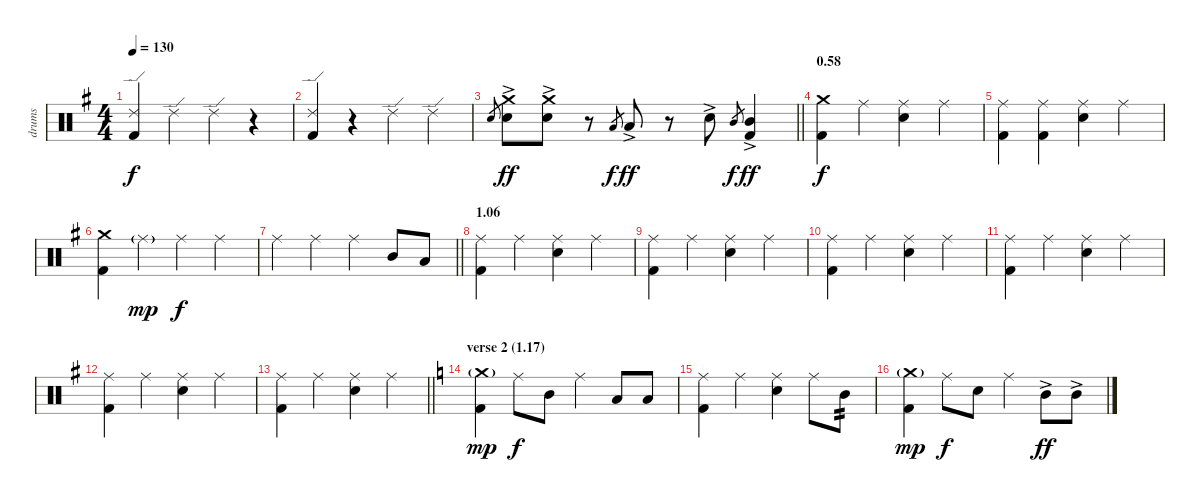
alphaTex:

\track ("drums" "drums") {instrument percussion}
\staff {score}
\articulation defaults
\ts (4 4)
\tempo 130
\clef neutral
\ks g
("Ride (edge) 2" "Kick (hit) 2").4{dy f} "Ride (edge) 2".4 "Ride (edge) 2".4 r.4 |
("Ride (edge) 2" "Kick (hit) 2").4 r.4 "Ride (edge) 2".4 "Ride (edge) 2".4 |
\barLineRight lightlight "Electric Snare (hit)".8{gr}
("Crash medium (hit)"{ac} "Electric Snare (hit)"{ac}).8{dy ff} ("Crash medium (hit)"{ac} "Electric Snare (hit)"{ac}).8 r.8 "Low Tom (hit)".8{gr dy f} "Low Tom (hit)"{ac}.8{dy ff} r.8 "Electric Snare (hit)"{ac}.8 "Mid Tom (hit)".8{gr dy f} ("Mid Tom (hit)"{ac} "Kick (hit) 2"{ac}).4{dy ff} |
\section ("" "0.58")
("Crash medium (hit)" "Kick (hit) 2").4{dy f} "Ride (middle)".4 ("Ride (middle)" "Electric Snare (hit)").4 "Ride (middle)".4 |
("Ride (middle)" "Kick (hit) 2").4 ("Ride (middle)" "Kick (hit) 2").4 ("Ride (middle)" "Electric Snare (hit)").4 "Ride (middle)".4 |
("Crash medium (hit)" "Kick (hit) 2").4 "Ride (middle)"{g}.4{dy mp} "Ride (middle)".4{dy f} "Ride (middle)".4 |
\barLineRight lightlight "Ride (middle)".4 "Ride (middle)".4 "Ride (middle)".4 "Mid Tom (hit)".8 "Low Tom (hit)".8
|
\section ("" "1.06")
("Ride (middle)" "Kick (hit) 2").4 "Ride (middle)".4 ("Ride (middle)" "Electric Snare (hit)").4 "Ride (middle)".4 |
("Ride (middle)" "Kick (hit) 2").4 "Ride (middle)".4 ("Ride (middle)" "Electric Snare (hit)").4 "Ride (middle)".4 |
("Ride (middle)" "Kick (hit) 2").4 "Ride (middle)".4 ("Ride (middle)" "Electric Snare (hit)").4 "Ride (middle)".4 |
("Ride (middle)" "Kick (hit) 2").4 "Ride (middle)".4 ("Ride (middle)" "Electric Snare (hit)").4 "Ride (middle)".4 |
("Ride (middle)" "Kick (hit) 2").4 "Ride (middle)".4 ("Ride (middle)" "Electric Snare (hit)").4 "Ride (middle)".4 |
\barLineRight lightlight
("Ride (middle)" "Kick (hit) 2").4 "Ride (middle)".4 ("Ride (middle)" "Electric Snare (hit)").4 "Ride (middle)".4 |
\section ("" "verse 2 (1.17)")
\ks c
("Crash medium (hit)"{g} "Kick (hit) 2").4{dy mp} "Ride (middle)".8{dy f} "Mid Tom (hit)".8 "Ride (middle)".4 "Low Tom (hit)".8 "Low Tom (hit)".8 |
("Ride (middle)" "Kick (hit) 2").4 "Ride (middle)".4 ("Ride (middle)" "Electric Snare (hit)").4 "Ride (middle)".8 "Mid Tom (hit)".8{tp 2} |
("Crash medium (hit)"{g} "Kick (hit) 2").4{dy mp} "Ride (middle)".8{dy f} "Electric Snare (hit)".8 "Ride (middle)".4 "Mid Tom (hit)"{ac}.8{dy ff} "Mid Tom (hit)"{ac}.8
